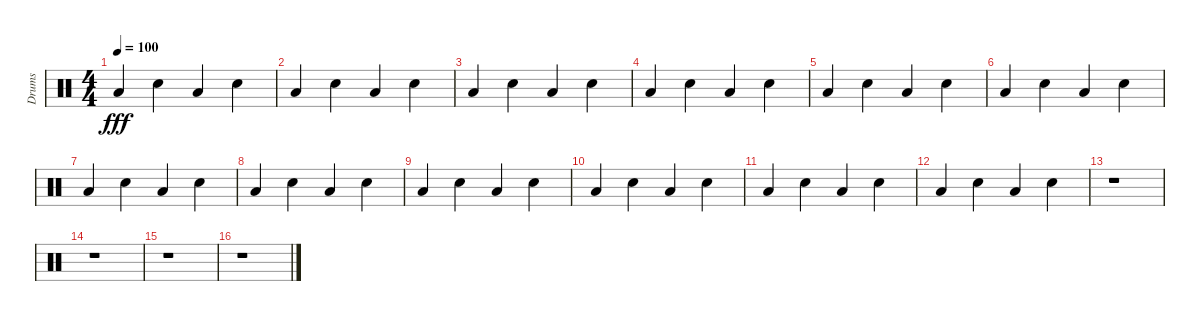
\track ("Drums" "Drums") {instrument percussion}
\staff {score}
\articulation defaults
\ts (4 4)
\tempo 100
\clef neutral
\ks c "Low Tom (hit)".4{dy fff} "Hand Clap (hit)".4 "Low Tom (hit)".4 "Hand Clap (hit)".4
|
"Low Tom (hit)".4 "Hand Clap (hit)".4 "Low Tom (hit)".4 "Hand Clap (hit)".4 |
"Low Tom (hit)".4 "Hand Clap (hit)".4 "Low Tom (hit)".4 "Hand Clap (hit)".4 |
"Low Tom (hit)".4 "Hand Clap (hit)".4 "Low Tom (hit)".4 "Hand Clap (hit)".4 |
"Low Tom (hit)".4 "Hand Clap (hit)".4 "Low Tom (hit)".4 "Hand Clap (hit)".4 |
"Low Tom (hit)".4 "Hand Clap (hit)".4 "Low Tom (hit)".4 "Hand Clap (hit)".4 |
"Low Tom (hit)".4 "Hand Clap (hit)".4 "Low Tom (hit)".4 "Hand Clap (hit)".4 |
"Low Tom (hit)".4 "Hand Clap (hit)".4 "Low Tom (hit)".4 "Hand Clap (hit)".4 |
"Low Tom (hit)".4 "Hand Clap (hit)".4 "Low Tom (hit)".4 "Hand Clap (hit)".4 |
"Low Tom (hit)".4 "Hand Clap (hit)".4 "Low Tom (hit)".4 "Hand Clap (hit)".4 |
"Low Tom (hit)".4 "Hand Clap (hit)".4 "Low Tom (hit)".4 "Hand Clap (hit)".4 |
"Low Tom (hit)".4 "Hand Clap (hit)".4 "Low Tom (hit)".4 "Hand Clap (hit)".4 |
r.1 |
r.1 |
r.1 |
r.1
